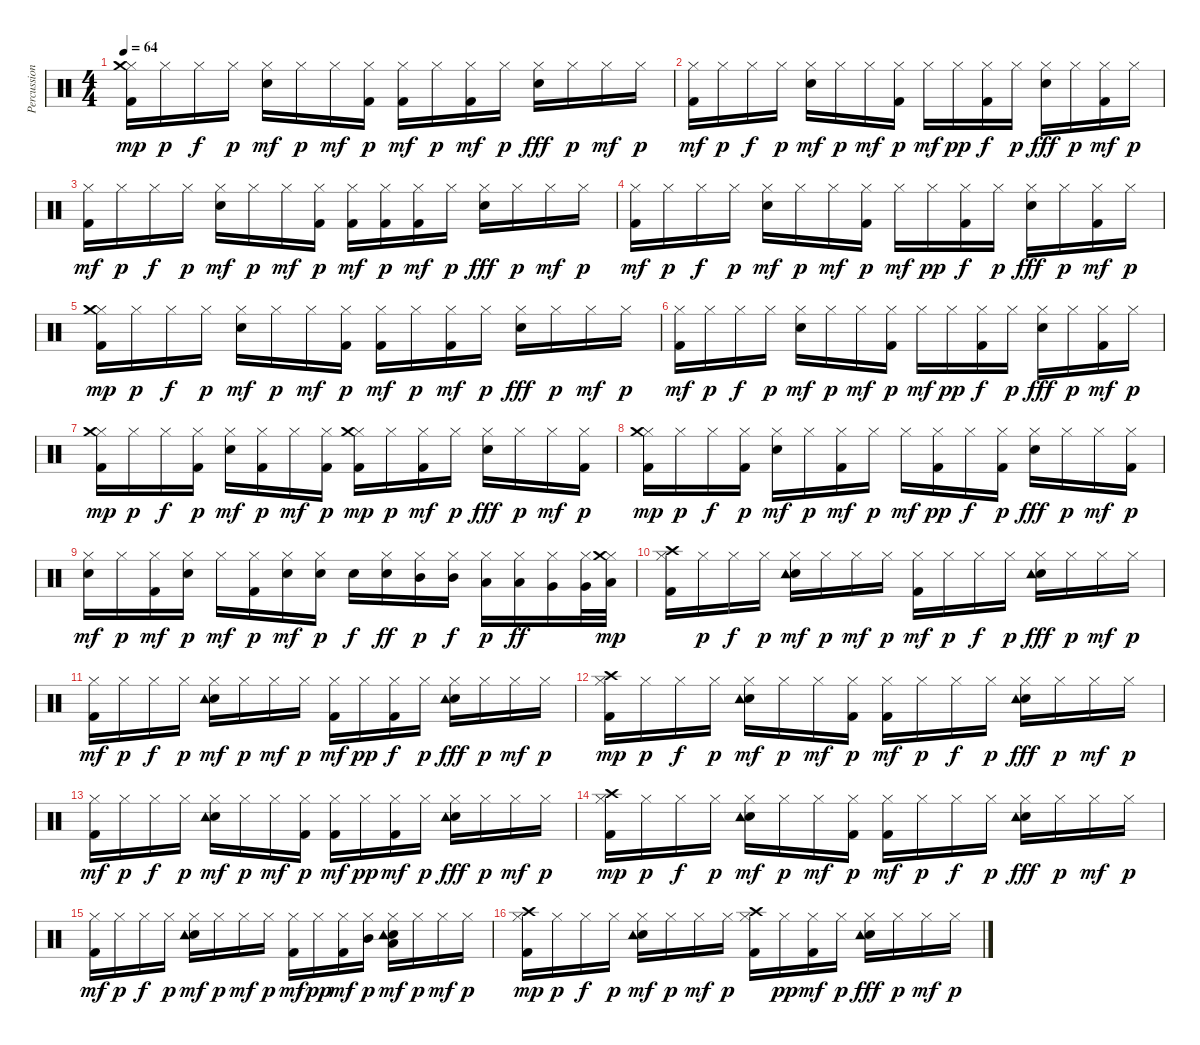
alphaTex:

\track ("Percussioni" "Percussion") {instrument percussion}
\staff {score}
\articulation defaults
\ts (4 4)
\tempo 64
\clef neutral
\ks c
("Kick (hit) 2" "Hi-Hat (closed)" "Crash medium (hit)").16{dy mp} "Hi-Hat (closed)".16{dy p} "Hi-Hat (closed)".16{dy f} "Hi-Hat (closed)".16{dy p} ("Electric Snare (hit)" "Hi-Hat (closed)").16{dy mf} "Hi-Hat (closed)".16{dy p} "Hi-Hat (closed)".16{dy mf} ("Kick (hit) 2" "Hi-Hat (closed)").16{dy p} ("Kick (hit) 2" "Hi-Hat (closed)").16{dy mf} "Hi-Hat (closed)".16{dy p} ("Kick (hit) 2" "Hi-Hat (closed)").16{dy mf} "Hi-Hat (closed)".16{dy p} ("Electric Snare (hit)" "Hi-Hat (closed)").16{dy fff} "Hi-Hat (closed)".16{dy p} "Hi-Hat (closed)".16{dy mf} "Hi-Hat (closed)".16{dy p} |
("Kick (hit) 2" "Hi-Hat (closed)").16{dy mf} "Hi-Hat (closed)".16{dy p} "Hi-Hat (closed)".16{dy f} "Hi-Hat (closed)".16{dy p} ("Electric Snare (hit)" "Hi-Hat (closed)").16{dy mf} "Hi-Hat (closed)".16{dy p} "Hi-Hat (closed)".16{dy mf} ("Kick (hit) 2" "Hi-Hat (closed)").16{dy p} "Hi-Hat (closed)".16{dy mf} "Hi-Hat (closed)".16{dy pp} ("Kick (hit) 2" "Hi-Hat (closed)").16{dy f} "Hi-Hat (closed)".16{dy p} ("Electric Snare (hit)" "Hi-Hat (closed)").16{dy fff} "Hi-Hat (closed)".16{dy p} ("Kick (hit) 2" "Hi-Hat (closed)").16{dy mf} "Hi-Hat (closed)".16{dy p} |
("Kick (hit) 2" "Hi-Hat (closed)").16{dy mf} "Hi-Hat (closed)".16{dy p} "Hi-Hat (closed)".16{dy f} "Hi-Hat (closed)".16{dy p} ("Electric Snare (hit)" "Hi-Hat (closed)").16{dy mf} "Hi-Hat (closed)".16{dy p} "Hi-Hat (closed)".16{dy mf} ("Kick (hit) 2" "Hi-Hat (closed)").16{dy p} ("Kick (hit) 2" "Hi-Hat (closed)").16{dy mf} ("Kick (hit) 2" "Hi-Hat (closed)").16{dy p} ("Kick (hit) 2" "Hi-Hat (closed)").16{dy mf} "Hi-Hat (closed)".16{dy p} ("Electric Snare (hit)" "Hi-Hat (closed)").16{dy fff} "Hi-Hat (closed)".16{dy p} "Hi-Hat (closed)".16{dy mf} "Hi-Hat (closed)".16{dy p} |
("Kick (hit) 2" "Hi-Hat (closed)").16{dy mf} "Hi-Hat (closed)".16{dy p} "Hi-Hat (closed)".16{dy f} "Hi-Hat (closed)".16{dy p} ("Electric Snare (hit)" "Hi-Hat (closed)").16{dy mf} "Hi-Hat (closed)".16{dy p} "Hi-Hat (closed)".16{dy mf} ("Kick (hit) 2" "Hi-Hat (closed)").16{dy p} "Hi-Hat (closed)".16{dy mf} "Hi-Hat (closed)".16{dy pp} ("Kick (hit) 2" "Hi-Hat (closed)").16{dy f} "Hi-Hat (closed)".16{dy p} ("Electric Snare (hit)" "Hi-Hat (closed)").16{dy fff} "Hi-Hat (closed)".16{dy p} ("Kick (hit) 2" "Hi-Hat (closed)").16{dy mf} "Hi-Hat (closed)".16{dy p} |
("Kick (hit) 2" "Hi-Hat (closed)" "Crash medium (hit)").16{dy mp} "Hi-Hat (closed)".16{dy p} "Hi-Hat (closed)".16{dy f} "Hi-Hat (closed)".16{dy p} ("Electric Snare (hit)" "Hi-Hat (closed)").16{dy mf} "Hi-Hat (closed)".16{dy p} "Hi-Hat (closed)".16{dy mf} ("Kick (hit) 2" "Hi-Hat (closed)").16{dy p} ("Kick (hit) 2" "Hi-Hat (closed)").16{dy mf} "Hi-Hat (closed)".16{dy p} ("Kick (hit) 2" "Hi-Hat (closed)").16{dy mf} "Hi-Hat (closed)".16{dy p} ("Electric Snare (hit)" "Hi-Hat (closed)").16{dy fff} "Hi-Hat (closed)".16{dy p} "Hi-Hat (closed)".16{dy mf} "Hi-Hat (closed)".16{dy p} |
("Kick (hit) 2" "Hi-Hat (closed)").16{dy mf} "Hi-Hat (closed)".16{dy p} "Hi-Hat (closed)".16{dy f} "Hi-Hat (closed)".16{dy p} ("Electric Snare (hit)" "Hi-Hat (closed)").16{dy mf} "Hi-Hat (closed)".16{dy p} "Hi-Hat (closed)".16{dy mf} ("Kick (hit) 2" "Hi-Hat (closed)").16{dy p} "Hi-Hat (closed)".16{dy mf} "Hi-Hat (closed)".16{dy pp} ("Kick (hit) 2" "Hi-Hat (closed)").16{dy f} "Hi-Hat (closed)".16{dy p} ("Electric Snare (hit)" "Hi-Hat (closed)").16{dy fff} "Hi-Hat (closed)".16{dy p} ("Kick (hit) 2" "Hi-Hat (closed)").16{dy mf} "Hi-Hat (closed)".16{dy p} |
("Kick (hit) 2" "Hi-Hat (closed)" "Crash medium (hit)").16{dy mp} "Hi-Hat (closed)".16{dy p} "Hi-Hat (closed)".16{dy f} ("Kick (hit) 2" "Hi-Hat (closed)").16{dy p} ("Electric Snare (hit)" "Hi-Hat (closed)").16{dy mf} ("Kick (hit) 2" "Hi-Hat (closed)").16{dy p} "Hi-Hat (closed)".16{dy mf} ("Kick (hit) 2" "Hi-Hat (closed)").16{dy p} ("Kick (hit) 2" "Hi-Hat (closed)" "Crash medium (hit)").16{dy mp} "Hi-Hat (closed)".16{dy p} ("Kick (hit) 2" "Hi-Hat (closed)").16{dy mf} "Hi-Hat (closed)".16{dy p} ("Electric Snare (hit)" "Hi-Hat (closed)").16{dy fff} "Hi-Hat (closed)".16{dy p} "Hi-Hat (closed)".16{dy mf} ("Kick (hit) 2" "Hi-Hat (closed)").16{dy p} |
("Kick (hit) 2" "Hi-Hat (closed)" "Crash medium (hit)").16{dy mp} "Hi-Hat (closed)".16{dy p} "Hi-Hat (closed)".16{dy f} ("Kick (hit) 2" "Hi-Hat (closed)").16{dy p} ("Electric Snare (hit)" "Hi-Hat (closed)").16{dy mf} "Hi-Hat (closed)".16{dy p} ("Kick (hit) 2" "Hi-Hat (closed)").16{dy mf} "Hi-Hat (closed)".16{dy p} "Hi-Hat (closed)".16{dy mf} ("Kick (hit) 2" "Hi-Hat (closed)").16{dy pp} "Hi-Hat (closed)".16{dy f} ("Kick (hit) 2" "Hi-Hat (closed)").16{dy p} ("Electric Snare (hit)" "Hi-Hat (closed)").16{dy fff} "Hi-Hat (closed)".16{dy p} "Hi-Hat (closed)".16{dy mf} ("Kick (hit) 2" "Hi-Hat (closed)").16{dy p} |
("Electric Snare (hit)" "Hi-Hat (closed)").16{dy mf} "Hi-Hat (closed)".16{dy p} ("Kick (hit) 2" "Hi-Hat (closed)").16{dy mf} ("Electric Snare (hit)" "Hi-Hat (closed)").16{dy p} "Hi-Hat (closed)".16{dy mf} ("Kick (hit) 2" "Hi-Hat (closed)").16{dy p} ("Electric Snare (hit)" "Hi-Hat (closed)").16{dy mf} ("Electric Snare (hit)" "Hi-Hat (closed)").16{dy p} "Electric Snare (hit)".16{dy f} ("Hi-Hat (closed)" "Electric Snare (hit)").16{dy ff} ("Hi-Hat (closed)" "Mid Tom (hit)").16{dy p} ("Hi-Hat (closed)" "Mid Tom (hit)").16{dy f} ("Hi-Hat (closed)" "Low Tom (hit)").16{dy p} ("Hi-Hat (closed)" "Low Tom (hit)").16{dy ff} ("Hi-Hat (closed)" "Very Low Tom (hit)").16 ("Hi-Hat (closed)" "Very Low Tom (hit)").32 ("Low Floor Tom (hit)" "Hi-Hat (closed)" "Crash medium (hit)").32{dy mp} |
("Kick (hit) 2" "Hi-Hat (closed)" "Crash high (hit)").16 "Hi-Hat (closed)".16{dy p} "Hi-Hat (closed)".16{dy f} "Hi-Hat (closed)".16{dy p} ("Electric Snare (hit)" "Hi-Hat (closed)" "Tambourine (hit)").16{dy mf} "Hi-Hat (closed)".16{dy p} "Hi-Hat (closed)".16{dy mf} "Hi-Hat (closed)".16{dy p} ("Kick (hit) 2" "Hi-Hat (closed)").16{dy mf} "Hi-Hat (closed)".16{dy p} "Hi-Hat (closed)".16{dy f} "Hi-Hat (closed)".16{dy p} ("Electric Snare (hit)" "Hi-Hat (closed)" "Tambourine (hit)").16{dy fff} "Hi-Hat (closed)".16{dy p} "Hi-Hat (closed)".16{dy mf} "Hi-Hat (closed)".16{dy p} |
("Kick (hit) 2" "Hi-Hat (closed)").16{dy mf} "Hi-Hat (closed)".16{dy p} "Hi-Hat (closed)".16{dy f} "Hi-Hat (closed)".16{dy p} ("Electric Snare (hit)" "Hi-Hat (closed)" "Tambourine (hit)").16{dy mf} "Hi-Hat (closed)".16{dy p} "Hi-Hat (closed)".16{dy mf} "Hi-Hat (closed)".16{dy p} ("Kick (hit) 2" "Hi-Hat (closed)").16{dy mf} "Hi-Hat (closed)".16{dy pp} ("Kick (hit) 2" "Hi-Hat (closed)").16{dy f} "Hi-Hat (closed)".16{dy p} ("Electric Snare (hit)" "Hi-Hat (closed)" "Tambourine (hit)").16{dy fff} "Hi-Hat (closed)".16{dy p} "Hi-Hat (closed)".16{dy mf} "Hi-Hat (closed)".16{dy p} |
("Kick (hit) 2" "Hi-Hat (closed)" "Crash high (hit)").16{dy mp} "Hi-Hat (closed)".16{dy p} "Hi-Hat (closed)".16{dy f} "Hi-Hat (closed)".16{dy p} ("Electric Snare (hit)" "Hi-Hat (closed)" "Tambourine (hit)").16{dy mf} "Hi-Hat (closed)".16{dy p} "Hi-Hat (closed)".16{dy mf} ("Kick (hit) 2" "Hi-Hat (closed)").16{dy p} ("Kick (hit) 2" "Hi-Hat (closed)").16{dy mf} "Hi-Hat (closed)".16{dy p} "Hi-Hat (closed)".16{dy f} "Hi-Hat (closed)".16{dy p} ("Electric Snare (hit)" "Hi-Hat (closed)" "Tambourine (hit)").16{dy fff} "Hi-Hat (closed)".16{dy p} "Hi-Hat (closed)".16{dy mf} "Hi-Hat (closed)".16{dy p} |
("Kick (hit) 2" "Hi-Hat (closed)").16{dy mf} "Hi-Hat (closed)".16{dy p} "Hi-Hat (closed)".16{dy f} "Hi-Hat (closed)".16{dy p} ("Electric Snare (hit)" "Hi-Hat (closed)" "Tambourine (hit)").16{dy mf} "Hi-Hat (closed)".16{dy p} "Hi-Hat (closed)".16{dy mf} ("Kick (hit) 2" "Hi-Hat (closed)").16{dy p} ("Kick (hit) 2" "Hi-Hat (closed)").16{dy mf} "Hi-Hat (closed)".16{dy pp} ("Kick (hit) 2" "Hi-Hat (closed)").16{dy mf} "Hi-Hat (closed)".16{dy p} ("Electric Snare (hit)" "Hi-Hat (closed)" "Tambourine (hit)").16{dy fff} "Hi-Hat (closed)".16{dy p} "Hi-Hat (closed)".16{dy mf} "Hi-Hat (closed)".16{dy p} |
("Kick (hit) 2" "Hi-Hat (closed)" "Crash high (hit)").16{dy mp} "Hi-Hat (closed)".16{dy p} "Hi-Hat (closed)".16{dy f} "Hi-Hat (closed)".16{dy p} ("Electric Snare (hit)" "Hi-Hat (closed)" "Tambourine (hit)").16{dy mf} "Hi-Hat (closed)".16{dy p} "Hi-Hat (closed)".16{dy mf} ("Kick (hit) 2" "Hi-Hat (closed)").16{dy p} ("Kick (hit) 2" "Hi-Hat (closed)").16{dy mf} "Hi-Hat (closed)".16{dy p} "Hi-Hat (closed)".16{dy f} "Hi-Hat (closed)".16{dy p} ("Electric Snare (hit)" "Hi-Hat (closed)" "Tambourine (hit)").16{dy fff} "Hi-Hat (closed)".16{dy p} "Hi-Hat (closed)".16{dy mf} "Hi-Hat (closed)".16{dy p} |
("Kick (hit) 2" "Hi-Hat (closed)").16{dy mf} "Hi-Hat (closed)".16{dy p} "Hi-Hat (closed)".16{dy f} "Hi-Hat (closed)".16{dy p} ("Electric Snare (hit)" "Hi-Hat (closed)" "Tambourine (hit)").16{dy mf} "Hi-Hat (closed)".16{dy p} "Hi-Hat (closed)".16{dy mf} "Hi-Hat (closed)".16{dy p} ("Kick (hit) 2" "Hi-Hat (closed)").16{dy mf} "Hi-Hat (closed)".16{dy pp} ("Kick (hit) 2" "Hi-Hat (closed)").16{dy mf} ("Hi-Hat (closed)" "Mid Tom (hit)").16{dy p} ("Electric Snare (hit)" "Hi-Hat (closed)" "Low Tom (hit)" "Tambourine (hit)").16{dy mf} "Hi-Hat (closed)".16{dy p} "Hi-Hat (closed)".16{dy mf} "Hi-Hat (closed)".16{dy p} |
("Kick (hit) 2" "Hi-Hat (closed)" "Crash high (hit)").16{dy mp} "Hi-Hat (closed)".16{dy p} "Hi-Hat (closed)".16{dy f} "Hi-Hat (closed)".16{dy p} ("Electric Snare (hit)" "Hi-Hat (closed)" "Tambourine (hit)").16{dy mf} "Hi-Hat (closed)".16{dy p} "Hi-Hat (closed)".16{dy mf} "Hi-Hat (closed)".16{dy p} ("Kick (hit) 2" "Hi-Hat (closed)" "Crash high (hit)").16 "Hi-Hat (closed)".16{dy pp} ("Kick (hit) 2" "Hi-Hat (closed)").16{dy mf} "Hi-Hat (closed)".16{dy p} ("Electric Snare (hit)" "Hi-Hat (closed)" "Tambourine (hit)").16{dy fff} "Hi-Hat (closed)".16{dy p} "Hi-Hat (closed)".16{dy mf} "Hi-Hat (closed)".16{dy p}
